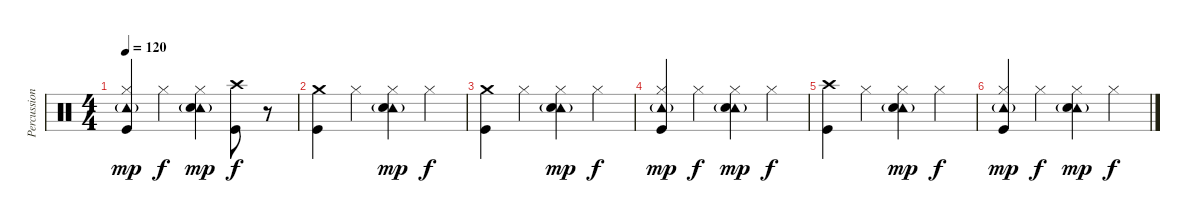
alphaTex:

\track ("Percussioni" "Percussion") {instrument percussion}
\staff {score}
\articulation defaults
\ts (4 4)
\tempo 120
\clef neutral
\ks c
("Tambourine (hit)"{g} "Hi-Hat (closed)" "Kick (hit)").4{dy mp} "Hi-Hat (closed)".4{dy f} ("Tambourine (hit)"{g} "Hi-Hat (closed)" "Snare (hit) 2").4{dy mp} ("Crash high (hit)" "Kick (hit)").8{dy f} r.8 |
("Crash medium (hit)" "Kick (hit)").4 "Hi-Hat (closed)".4 ("Tambourine (hit)"{g} "Hi-Hat (closed)" "Snare (hit) 2").4{dy mp} "Hi-Hat (closed)".4{dy f} |
("Crash medium (hit)" "Kick (hit)").4 "Hi-Hat (closed)".4 ("Tambourine (hit)"{g} "Hi-Hat (closed)" "Snare (hit) 2").4{dy mp} "Hi-Hat (closed)".4{dy f} |
("Tambourine (hit)"{g} "Hi-Hat (closed)" "Kick (hit)").4{dy mp} "Hi-Hat (closed)".4{dy f} ("Tambourine (hit)"{g} "Hi-Hat (closed)" "Snare (hit) 2").4{dy mp} "Hi-Hat (closed)".4{dy f} |
("Crash high (hit)" "Kick (hit)").4 "Hi-Hat (closed)".4 ("Tambourine (hit)"{g} "Hi-Hat (closed)" "Snare (hit) 2").4{dy mp} "Hi-Hat (closed)".4{dy f} |
("Tambourine (hit)"{g} "Hi-Hat (closed)" "Kick (hit)").4{dy mp} "Hi-Hat (closed)".4{dy f} ("Tambourine (hit)"{g} "Hi-Hat (closed)" "Snare (hit) 2").4{dy mp} "Hi-Hat (closed)".4{dy f}
